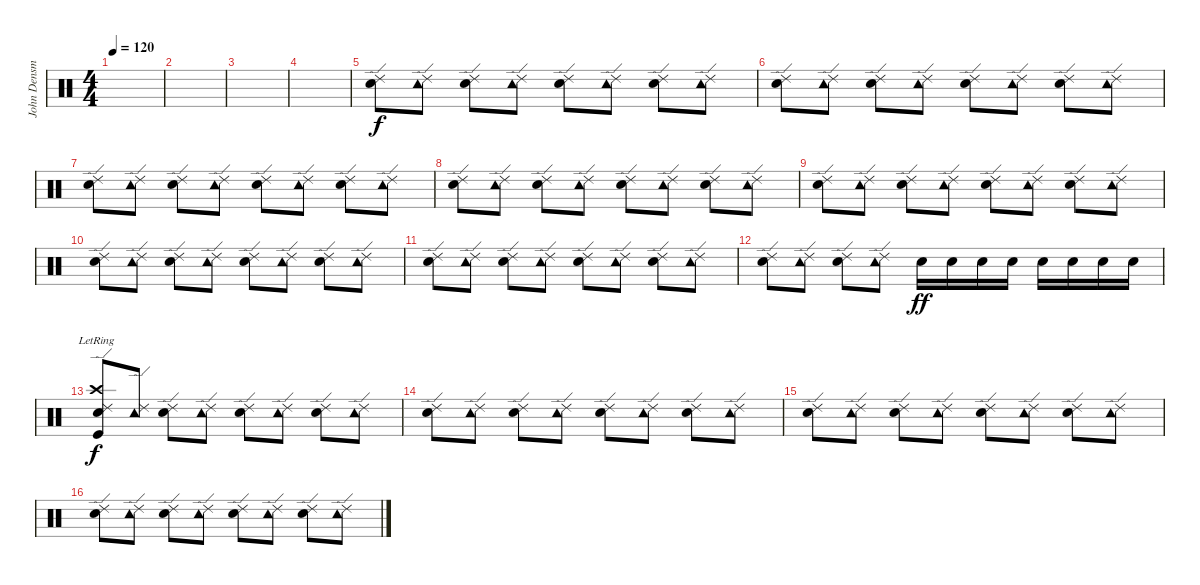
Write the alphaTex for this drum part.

\track ("John Densmore" "John Densm") {instrument percussion}
\staff {score}
\articulation defaults
\ts (4 4)
\tempo 120
\tempo 130
\tempo 120
\clef neutral
\ks c
|
|
|
|
("Ride (edge) 2" "Electric Snare (hit)").8 ("Ride (edge) 2" "Tambourine (hit)").8 ("Ride (edge) 2" "Snare (hit) 2").8 ("Ride (edge) 2" "Tambourine (hit)").8 ("Ride (edge) 2" "Electric Snare (hit)").8 ("Ride (edge) 2" "Tambourine (hit)").8 ("Ride (edge) 2" "Snare (hit) 2").8 ("Ride (edge) 2" "Tambourine (hit)").8 |
("Ride (edge) 2" "Electric Snare (hit)").8 ("Ride (edge) 2" "Tambourine (hit)").8 ("Ride (edge) 2" "Snare (hit) 2").8 ("Ride (edge) 2" "Tambourine (hit)").8 ("Ride (edge) 2" "Electric Snare (hit)").8 ("Ride (edge) 2" "Tambourine (hit)").8 ("Ride (edge) 2" "Snare (hit) 2").8 ("Ride (edge) 2" "Tambourine (hit)").8 |
("Ride (edge) 2" "Electric Snare (hit)").8 ("Ride (edge) 2" "Tambourine (hit)").8 ("Ride (edge) 2" "Snare (hit) 2").8 ("Ride (edge) 2" "Tambourine (hit)").8 ("Ride (edge) 2" "Electric Snare (hit)").8 ("Ride (edge) 2" "Tambourine (hit)").8 ("Ride (edge) 2" "Snare (hit) 2").8 ("Ride (edge) 2" "Tambourine (hit)").8 |
("Ride (edge) 2" "Electric Snare (hit)").8 ("Ride (edge) 2" "Tambourine (hit)").8 ("Ride (edge) 2" "Snare (hit) 2").8 ("Ride (edge) 2" "Tambourine (hit)").8 ("Ride (edge) 2" "Electric Snare (hit)").8 ("Ride (edge) 2" "Tambourine (hit)").8 ("Ride (edge) 2" "Snare (hit) 2").8 ("Ride (edge) 2" "Tambourine (hit)").8 |
("Ride (edge) 2" "Electric Snare (hit)").8 ("Ride (edge) 2" "Tambourine (hit)").8 ("Ride (edge) 2" "Snare (hit) 2").8 ("Ride (edge) 2" "Tambourine (hit)").8 ("Ride (edge) 2" "Electric Snare (hit)").8 ("Ride (edge) 2" "Tambourine (hit)").8 ("Ride (edge) 2" "Snare (hit) 2").8 ("Ride (edge) 2" "Tambourine (hit)").8 |
("Ride (edge) 2" "Electric Snare (hit)").8 ("Ride (edge) 2" "Tambourine (hit)").8 ("Ride (edge) 2" "Snare (hit) 2").8 ("Ride (edge) 2" "Tambourine (hit)").8 ("Ride (edge) 2" "Electric Snare (hit)").8 ("Ride (edge) 2" "Tambourine (hit)").8 ("Ride (edge) 2" "Snare (hit) 2").8 ("Ride (edge) 2" "Tambourine (hit)").8 |
("Ride (edge) 2" "Electric Snare (hit)").8 ("Ride (edge) 2" "Tambourine (hit)").8 ("Ride (edge) 2" "Snare (hit) 2").8 ("Ride (edge) 2" "Tambourine (hit)").8 ("Ride (edge) 2" "Electric Snare (hit)").8 ("Ride (edge) 2" "Tambourine (hit)").8 ("Ride (edge) 2" "Snare (hit) 2").8 ("Ride (edge) 2" "Tambourine (hit)").8 |
("Ride (edge) 2" "Electric Snare (hit)").8 ("Ride (edge) 2" "Tambourine (hit)").8 ("Ride (edge) 2" "Snare (hit) 2").8 ("Ride (edge) 2" "Tambourine (hit)").8 "Snare (hit) 2".16{dy ff} "Snare (hit) 2".16 "Snare (hit) 2".16 "Snare (hit) 2".16 "Snare (hit) 2".16 "Snare (hit) 2".16 "Snare (hit) 2".16 "Snare (hit) 2".16 |
("Crash high (hit)"{lr} "Ride (edge) 2" "Electric Snare (hit)" "Kick (hit)").8{dy f} ("Ride (edge) 2" "Tambourine (hit)").8 ("Ride (edge) 2" "Snare (hit) 2").8 ("Ride (edge) 2" "Tambourine (hit)").8 ("Ride (edge) 2" "Electric Snare (hit)").8 ("Ride (edge) 2" "Tambourine (hit)").8 ("Ride (edge) 2" "Snare (hit) 2").8 ("Ride (edge) 2" "Tambourine (hit)").8 |
("Ride (edge) 2" "Electric Snare (hit)").8 ("Ride (edge) 2" "Tambourine (hit)").8 ("Ride (edge) 2" "Snare (hit) 2").8 ("Ride (edge) 2" "Tambourine (hit)").8 ("Ride (edge) 2" "Electric Snare (hit)").8 ("Ride (edge) 2" "Tambourine (hit)").8 ("Ride (edge) 2" "Snare (hit) 2").8 ("Ride (edge) 2" "Tambourine (hit)").8 |
("Ride (edge) 2" "Electric Snare (hit)").8 ("Ride (edge) 2" "Tambourine (hit)").8 ("Ride (edge) 2" "Snare (hit) 2").8 ("Ride (edge) 2" "Tambourine (hit)").8 ("Ride (edge) 2" "Electric Snare (hit)").8 ("Ride (edge) 2" "Tambourine (hit)").8 ("Ride (edge) 2" "Snare (hit) 2").8 ("Ride (edge) 2" "Tambourine (hit)").8 |
("Ride (edge) 2" "Electric Snare (hit)").8 ("Ride (edge) 2" "Tambourine (hit)").8 ("Ride (edge) 2" "Snare (hit) 2").8 ("Ride (edge) 2" "Tambourine (hit)").8 ("Ride (edge) 2" "Electric Snare (hit)").8 ("Ride (edge) 2" "Tambourine (hit)").8 ("Ride (edge) 2" "Snare (hit) 2").8 ("Ride (edge) 2" "Tambourine (hit)").8
